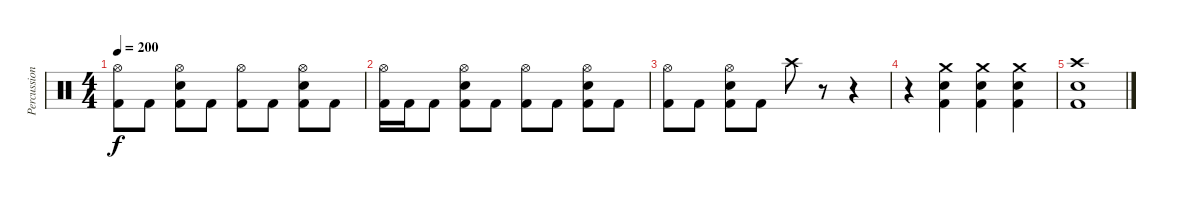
\track ("Percussions" "Percussion") {instrument percussion}
\staff {score}
\articulation defaults
\ts (4 4)
\tempo 200
\clef neutral
\ks c
("Hi-Hat (open)" "Kick (hit) 2").8{dy f} "Kick (hit) 2".8 ("Hi-Hat (open)" "Electric Snare (hit)" "Kick (hit) 2").8 "Kick (hit) 2".8 ("Hi-Hat (open)" "Kick (hit) 2").8 "Kick (hit) 2".8 ("Hi-Hat (open)" "Electric Snare (hit)" "Kick (hit) 2").8 "Kick (hit) 2".8 |
("Hi-Hat (open)" "Kick (hit) 2").16 "Kick (hit) 2".16 "Kick (hit) 2".8 ("Hi-Hat (open)" "Electric Snare (hit)" "Kick (hit) 2").8 "Kick (hit) 2".8 ("Hi-Hat (open)" "Kick (hit) 2").8 "Kick (hit) 2".8 ("Hi-Hat (open)" "Electric Snare (hit)" "Kick (hit) 2").8 "Kick (hit) 2".8 |
("Hi-Hat (open)" "Kick (hit) 2").8 "Kick (hit) 2".8 ("Hi-Hat (open)" "Electric Snare (hit)" "Kick (hit) 2").8 "Kick (hit) 2".8 "Crash high (hit)".8 r.8{volume 0} r.4 |
r.4 ("Crash medium (hit)" "Electric Snare (hit)" "Kick (hit) 2").4{volume 13} ("Crash medium (hit)" "Electric Snare (hit)" "Kick (hit) 2").4 ("Crash medium (hit)" "Electric Snare (hit)" "Kick (hit) 2").4 |
("Crash high (hit)" "Electric Snare (hit)" "Kick (hit) 2").1
